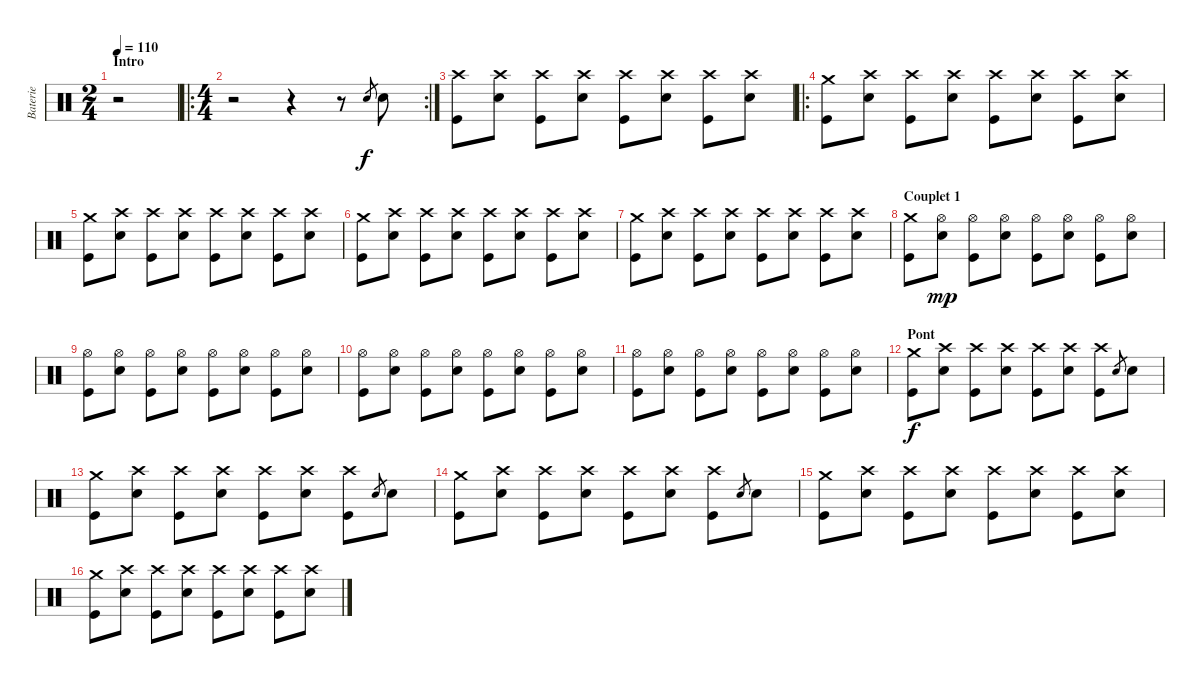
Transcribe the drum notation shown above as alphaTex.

\track ("Baterie" "Baterie") {instrument percussion}
\staff {score}
\articulation defaults
\ts (2 4)
\section ("" "Intro")
\tempo 110
\clef neutral
\ks c
r.2{dy f} |
\ro
\rc 2
\ts (4 4)
r.2 r.4 r.8 "Electric Snare (hit)".8{gr} "Electric Snare (hit)".8 |
("Crash high (hit)" "Kick (hit)").8 ("Crash high (hit)" "Electric Snare (hit)").8 ("Crash high (hit)" "Kick (hit)").8 ("Crash high (hit)" "Electric Snare (hit)").8 ("Crash high (hit)" "Kick (hit)").8 ("Crash high (hit)" "Electric Snare (hit)").8 ("Crash high (hit)" "Kick (hit)").8 ("Crash high (hit)" "Electric Snare (hit)").8 |
\ro
("Crash medium (hit)" "Kick (hit)").8 ("Crash high (hit)" "Electric Snare (hit)").8 ("Crash high (hit)" "Kick (hit)").8 ("Crash high (hit)" "Electric Snare (hit)").8 ("Crash high (hit)" "Kick (hit)").8 ("Crash high (hit)" "Electric Snare (hit)").8 ("Crash high (hit)" "Kick (hit)").8 ("Crash high (hit)" "Electric Snare (hit)").8 |
("Crash medium (hit)" "Kick (hit)").8 ("Crash high (hit)" "Electric Snare (hit)").8 ("Crash high (hit)" "Kick (hit)").8 ("Crash high (hit)" "Electric Snare (hit)").8 ("Crash high (hit)" "Kick (hit)").8 ("Crash high (hit)" "Electric Snare (hit)").8 ("Crash high (hit)" "Kick (hit)").8 ("Crash high (hit)" "Electric Snare (hit)").8 |
("Crash medium (hit)" "Kick (hit)").8 ("Crash high (hit)" "Electric Snare (hit)").8 ("Crash high (hit)" "Kick (hit)").8 ("Crash high (hit)" "Electric Snare (hit)").8 ("Crash high (hit)" "Kick (hit)").8 ("Crash high (hit)" "Electric Snare (hit)").8 ("Crash high (hit)" "Kick (hit)").8 ("Crash high (hit)" "Electric Snare (hit)").8 |
("Crash medium (hit)" "Kick (hit)").8 ("Crash high (hit)" "Electric Snare (hit)").8 ("Crash high (hit)" "Kick (hit)").8 ("Crash high (hit)" "Electric Snare (hit)").8 ("Crash high (hit)" "Kick (hit)").8 ("Crash high (hit)" "Electric Snare (hit)").8 ("Crash high (hit)" "Kick (hit)").8 ("Crash high (hit)" "Electric Snare (hit)").8 |
\section ("" "Couplet 1")
("Crash medium (hit)" "Kick (hit)").8 ("Hi-Hat (open)" "Electric Snare (hit)").8{dy mp} ("Hi-Hat (open)" "Kick (hit)").8 ("Hi-Hat (open)" "Electric Snare (hit)").8 ("Hi-Hat (open)" "Kick (hit)").8 ("Hi-Hat (open)" "Electric Snare (hit)").8 ("Hi-Hat (open)" "Kick (hit)").8 ("Hi-Hat (open)" "Electric Snare (hit)").8 |
("Hi-Hat (open)" "Kick (hit)").8 ("Hi-Hat (open)" "Electric Snare (hit)").8 ("Hi-Hat (open)" "Kick (hit)").8 ("Hi-Hat (open)" "Electric Snare (hit)").8 ("Hi-Hat (open)" "Kick (hit)").8 ("Hi-Hat (open)" "Electric Snare (hit)").8 ("Hi-Hat (open)" "Kick (hit)").8 ("Hi-Hat (open)" "Electric Snare (hit)").8 |
("Hi-Hat (open)" "Kick (hit)").8 ("Hi-Hat (open)" "Electric Snare (hit)").8 ("Hi-Hat (open)" "Kick (hit)").8 ("Hi-Hat (open)" "Electric Snare (hit)").8 ("Hi-Hat (open)" "Kick (hit)").8 ("Hi-Hat (open)" "Electric Snare (hit)").8 ("Hi-Hat (open)" "Kick (hit)").8 ("Hi-Hat (open)" "Electric Snare (hit)").8 |
("Hi-Hat (open)" "Kick (hit)").8 ("Hi-Hat (open)" "Electric Snare (hit)").8 ("Hi-Hat (open)" "Kick (hit)").8 ("Hi-Hat (open)" "Electric Snare (hit)").8 ("Hi-Hat (open)" "Kick (hit)").8 ("Hi-Hat (open)" "Electric Snare (hit)").8 ("Hi-Hat (open)" "Kick (hit)").8 ("Hi-Hat (open)" "Electric Snare (hit)").8 |
\section ("" "Pont")
("Crash medium (hit)" "Kick (hit)").8{dy f} ("Crash high (hit)" "Electric Snare (hit)").8 ("Crash high (hit)" "Kick (hit)").8 ("Crash high (hit)" "Electric Snare (hit)").8 ("Crash high (hit)" "Kick (hit)").8 ("Crash high (hit)" "Electric Snare (hit)").8 ("Crash high (hit)" "Kick (hit)").8 "Electric Snare (hit)".8{gr} "Electric Snare (hit)".8 |
("Crash medium (hit)" "Kick (hit)").8 ("Crash high (hit)" "Electric Snare (hit)").8 ("Crash high (hit)" "Kick (hit)").8 ("Crash high (hit)" "Electric Snare (hit)").8 ("Crash high (hit)" "Kick (hit)").8 ("Crash high (hit)" "Electric Snare (hit)").8 ("Crash high (hit)" "Kick (hit)").8 "Electric Snare (hit)".8{gr} "Electric Snare (hit)".8 |
("Crash medium (hit)" "Kick (hit)").8 ("Crash high (hit)" "Electric Snare (hit)").8 ("Crash high (hit)" "Kick (hit)").8 ("Crash high (hit)" "Electric Snare (hit)").8 ("Crash high (hit)" "Kick (hit)").8 ("Crash high (hit)" "Electric Snare (hit)").8 ("Crash high (hit)" "Kick (hit)").8 "Electric Snare (hit)".8{gr} "Electric Snare (hit)".8 |
("Crash medium (hit)" "Kick (hit)").8 ("Crash high (hit)" "Electric Snare (hit)").8 ("Crash high (hit)" "Kick (hit)").8 ("Crash high (hit)" "Electric Snare (hit)").8 ("Crash high (hit)" "Kick (hit)").8 ("Crash high (hit)" "Electric Snare (hit)").8 ("Crash high (hit)" "Kick (hit)").8 ("Crash high (hit)" "Electric Snare (hit)").8 |
("Crash medium (hit)" "Kick (hit)").8 ("Crash high (hit)" "Electric Snare (hit)").8 ("Crash high (hit)" "Kick (hit)").8 ("Crash high (hit)" "Electric Snare (hit)").8 ("Crash high (hit)" "Kick (hit)").8 ("Crash high (hit)" "Electric Snare (hit)").8 ("Crash high (hit)" "Kick (hit)").8 ("Crash high (hit)" "Electric Snare (hit)").8
